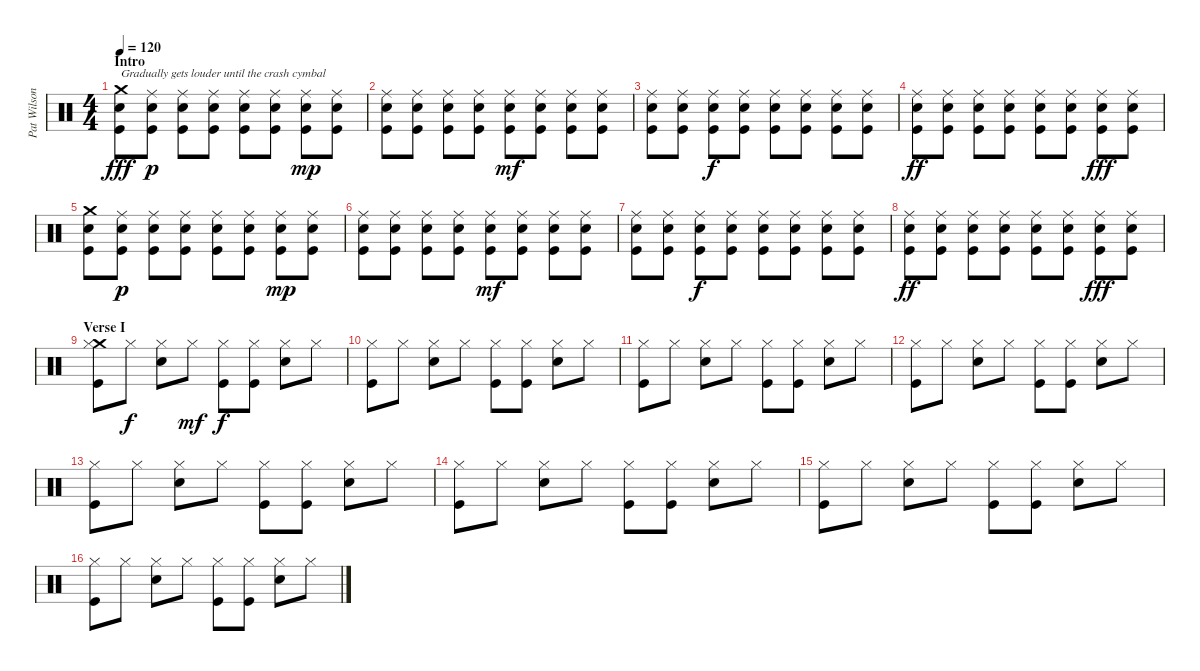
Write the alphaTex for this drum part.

\track ("Pat Wilson" "Pat Wilson") {instrument percussion}
\staff {score}
\articulation defaults
\ts (4 4)
\section ("" "Intro")
\tempo 120
\clef neutral
\ks c
("Crash medium (hit)" "Snare (hit) 2" "Kick (hit)").8{txt "Gradually gets louder until the crash cymbal " dy fff} ("Ride (middle)" "Snare (hit) 2" "Kick (hit)").8{dy p} ("Ride (middle)" "Snare (hit) 2" "Kick (hit)").8 ("Ride (middle)" "Snare (hit) 2" "Kick (hit)").8 ("Ride (middle)" "Snare (hit) 2" "Kick (hit)").8 ("Ride (middle)" "Snare (hit) 2" "Kick (hit)").8 ("Ride (middle)" "Snare (hit) 2" "Kick (hit)").8{dy mp} ("Ride (middle)" "Snare (hit) 2" "Kick (hit)").8 |
("Ride (middle)" "Snare (hit) 2" "Kick (hit)").8 ("Ride (middle)" "Snare (hit) 2" "Kick (hit)").8 ("Ride (middle)" "Snare (hit) 2" "Kick (hit)").8 ("Ride (middle)" "Snare (hit) 2" "Kick (hit)").8 ("Ride (middle)" "Snare (hit) 2" "Kick (hit)").8{dy mf} ("Ride (middle)" "Snare (hit) 2" "Kick (hit)").8 ("Ride (middle)" "Snare (hit) 2" "Kick (hit)").8 ("Ride (middle)" "Snare (hit) 2" "Kick (hit)").8 |
("Ride (middle)" "Snare (hit) 2" "Kick (hit)").8 ("Ride (middle)" "Snare (hit) 2" "Kick (hit)").8 ("Ride (middle)" "Snare (hit) 2" "Kick (hit)").8{dy f} ("Ride (middle)" "Snare (hit) 2" "Kick (hit)").8 ("Ride (middle)" "Snare (hit) 2" "Kick (hit)").8 ("Ride (middle)" "Snare (hit) 2" "Kick (hit)").8 ("Ride (middle)" "Snare (hit) 2" "Kick (hit)").8 ("Ride (middle)" "Snare (hit) 2" "Kick (hit)").8 |
("Ride (middle)" "Snare (hit) 2" "Kick (hit)").8{dy ff} ("Ride (middle)" "Snare (hit) 2" "Kick (hit)").8 ("Ride (middle)" "Snare (hit) 2" "Kick (hit)").8 ("Ride (middle)" "Snare (hit) 2" "Kick (hit)").8 ("Ride (middle)" "Snare (hit) 2" "Kick (hit)").8 ("Ride (middle)" "Snare (hit) 2" "Kick (hit)").8 ("Ride (middle)" "Snare (hit) 2" "Kick (hit)").8{dy fff} ("Ride (middle)" "Snare (hit) 2" "Kick (hit)").8 |
("Crash medium (hit)" "Snare (hit) 2" "Kick (hit)").8 ("Ride (middle)" "Snare (hit) 2" "Kick (hit)").8{dy p} ("Ride (middle)" "Snare (hit) 2" "Kick (hit)").8 ("Ride (middle)" "Snare (hit) 2" "Kick (hit)").8 ("Ride (middle)" "Snare (hit) 2" "Kick (hit)").8 ("Ride (middle)" "Snare (hit) 2" "Kick (hit)").8 ("Ride (middle)" "Snare (hit) 2" "Kick (hit)").8{dy mp} ("Ride (middle)" "Snare (hit) 2" "Kick (hit)").8 |
("Ride (middle)" "Snare (hit) 2" "Kick (hit)").8 ("Ride (middle)" "Snare (hit) 2" "Kick (hit)").8 ("Ride (middle)" "Snare (hit) 2" "Kick (hit)").8 ("Ride (middle)" "Snare (hit) 2" "Kick (hit)").8 ("Ride (middle)" "Snare (hit) 2" "Kick (hit)").8{dy mf} ("Ride (middle)" "Snare (hit) 2" "Kick (hit)").8 ("Ride (middle)" "Snare (hit) 2" "Kick (hit)").8 ("Ride (middle)" "Snare (hit) 2" "Kick (hit)").8 |
("Ride (middle)" "Snare (hit) 2" "Kick (hit)").8 ("Ride (middle)" "Snare (hit) 2" "Kick (hit)").8 ("Ride (middle)" "Snare (hit) 2" "Kick (hit)").8{dy f} ("Ride (middle)" "Snare (hit) 2" "Kick (hit)").8 ("Ride (middle)" "Snare (hit) 2" "Kick (hit)").8 ("Ride (middle)" "Snare (hit) 2" "Kick (hit)").8 ("Ride (middle)" "Snare (hit) 2" "Kick (hit)").8 ("Ride (middle)" "Snare (hit) 2" "Kick (hit)").8 |
("Ride (middle)" "Snare (hit) 2" "Kick (hit)").8{dy ff} ("Ride (middle)" "Snare (hit) 2" "Kick (hit)").8 ("Ride (middle)" "Snare (hit) 2" "Kick (hit)").8 ("Ride (middle)" "Snare (hit) 2" "Kick (hit)").8 ("Ride (middle)" "Snare (hit) 2" "Kick (hit)").8 ("Ride (middle)" "Snare (hit) 2" "Kick (hit)").8 ("Ride (middle)" "Snare (hit) 2" "Kick (hit)").8{dy fff} ("Ride (middle)" "Snare (hit) 2" "Kick (hit)").8 |
\section ("" "Verse I")
("Crash medium (hit)" "Hi-Hat (closed)" "Kick (hit)").8{volume 4} "Hi-Hat (closed)".8{dy f} ("Snare (hit) 2" "Hi-Hat (closed)").8 "Hi-Hat (closed)".8{dy mf} ("Hi-Hat (closed)" "Kick (hit)").8{dy f} ("Hi-Hat (closed)" "Kick (hit)").8 ("Snare (hit) 2" "Hi-Hat (closed)").8 "Hi-Hat (closed)".8 |
("Hi-Hat (closed)" "Kick (hit)").8 "Hi-Hat (closed)".8 ("Snare (hit) 2" "Hi-Hat (closed)").8 "Hi-Hat (closed)".8 ("Hi-Hat (closed)" "Kick (hit)").8 ("Hi-Hat (closed)" "Kick (hit)").8 ("Snare (hit) 2" "Hi-Hat (closed)").8 "Hi-Hat (closed)".8 |
("Hi-Hat (closed)" "Kick (hit)").8 "Hi-Hat (closed)".8 ("Snare (hit) 2" "Hi-Hat (closed)").8 "Hi-Hat (closed)".8 ("Hi-Hat (closed)" "Kick (hit)").8 ("Hi-Hat (closed)" "Kick (hit)").8 ("Snare (hit) 2" "Hi-Hat (closed)").8 "Hi-Hat (closed)".8 |
("Hi-Hat (closed)" "Kick (hit)").8 "Hi-Hat (closed)".8 ("Snare (hit) 2" "Hi-Hat (closed)").8 "Hi-Hat (closed)".8 ("Hi-Hat (closed)" "Kick (hit)").8 ("Hi-Hat (closed)" "Kick (hit)").8 ("Snare (hit) 2" "Hi-Hat (closed)").8 "Hi-Hat (closed)".8 |
("Hi-Hat (closed)" "Kick (hit)").8 "Hi-Hat (closed)".8 ("Snare (hit) 2" "Hi-Hat (closed)").8 "Hi-Hat (closed)".8 ("Hi-Hat (closed)" "Kick (hit)").8 ("Hi-Hat (closed)" "Kick (hit)").8 ("Snare (hit) 2" "Hi-Hat (closed)").8 "Hi-Hat (closed)".8 |
("Hi-Hat (closed)" "Kick (hit)").8 "Hi-Hat (closed)".8 ("Snare (hit) 2" "Hi-Hat (closed)").8 "Hi-Hat (closed)".8 ("Hi-Hat (closed)" "Kick (hit)").8 ("Hi-Hat (closed)" "Kick (hit)").8 ("Snare (hit) 2" "Hi-Hat (closed)").8 "Hi-Hat (closed)".8 |
("Hi-Hat (closed)" "Kick (hit)").8 "Hi-Hat (closed)".8 ("Snare (hit) 2" "Hi-Hat (closed)").8 "Hi-Hat (closed)".8 ("Hi-Hat (closed)" "Kick (hit)").8 ("Hi-Hat (closed)" "Kick (hit)").8 ("Snare (hit) 2" "Hi-Hat (closed)").8 "Hi-Hat (closed)".8 |
("Hi-Hat (closed)" "Kick (hit)").8 "Hi-Hat (closed)".8 ("Snare (hit) 2" "Hi-Hat (closed)").8 "Hi-Hat (closed)".8 ("Hi-Hat (closed)" "Kick (hit)").8 ("Hi-Hat (closed)" "Kick (hit)").8 ("Snare (hit) 2" "Hi-Hat (closed)").8 "Hi-Hat (closed)".8
